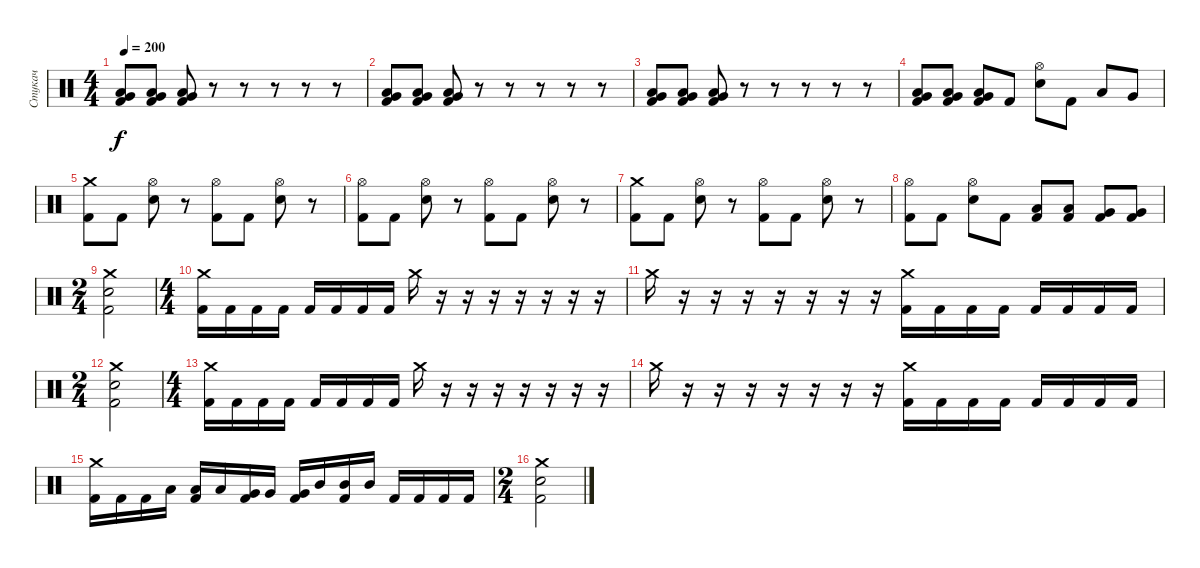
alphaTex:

\track ("Стукач" "Стукач") {instrument percussion}
\staff {score}
\articulation defaults
\ts (4 4)
\tempo 200
\clef neutral
\ks c
("Very Low Tom (hit)" "Low Tom (hit)" "Kick (hit) 2").8{dy f} ("Very Low Tom (hit)" "Low Tom (hit)" "Kick (hit) 2").8 ("Very Low Tom (hit)" "Low Tom (hit)" "Kick (hit) 2").8 r.8 r.8 r.8 r.8 r.8 |
("Very Low Tom (hit)" "Low Tom (hit)" "Kick (hit) 2").8 ("Very Low Tom (hit)" "Low Tom (hit)" "Kick (hit) 2").8 ("Very Low Tom (hit)" "Low Tom (hit)" "Kick (hit) 2").8 r.8 r.8 r.8 r.8 r.8 |
("Very Low Tom (hit)" "Low Tom (hit)" "Kick (hit) 2").8 ("Very Low Tom (hit)" "Low Tom (hit)" "Kick (hit) 2").8 ("Very Low Tom (hit)" "Low Tom (hit)" "Kick (hit) 2").8 r.8 r.8 r.8 r.8 r.8 |
("Very Low Tom (hit)" "Low Tom (hit)" "Kick (hit) 2").8 ("Very Low Tom (hit)" "Low Tom (hit)" "Kick (hit) 2").8 ("Very Low Tom (hit)" "Low Tom (hit)" "Kick (hit) 2").8 "Kick (hit) 2".8 ("Hi-Hat (open)" "Electric Snare (hit)").8 "Kick (hit) 2".8 "Low Tom (hit)".8 "Very Low Tom (hit)".8 |
("Crash medium (hit)" "Kick (hit) 2").8 "Kick (hit) 2".8 ("Hi-Hat (open)" "Electric Snare (hit)").8 r.8 ("Hi-Hat (open)" "Kick (hit) 2").8 "Kick (hit) 2".8 ("Hi-Hat (open)" "Electric Snare (hit)").8 r.8 |
("Hi-Hat (open)" "Kick (hit) 2").8 "Kick (hit) 2".8 ("Hi-Hat (open)" "Electric Snare (hit)").8 r.8 ("Hi-Hat (open)" "Kick (hit) 2").8 "Kick (hit) 2".8 ("Hi-Hat (open)" "Electric Snare (hit)").8 r.8 |
("Crash medium (hit)" "Kick (hit) 2").8 "Kick (hit) 2".8 ("Hi-Hat (open)" "Electric Snare (hit)").8 r.8 ("Hi-Hat (open)" "Kick (hit) 2").8 "Kick (hit) 2".8 ("Hi-Hat (open)" "Electric Snare (hit)").8 r.8 |
("Hi-Hat (open)" "Kick (hit) 2").8 "Kick (hit) 2".8 ("Hi-Hat (open)" "Electric Snare (hit)").8 "Kick (hit) 2".8 ("Low Tom (hit)" "Kick (hit) 2").8 ("Low Tom (hit)" "Kick (hit) 2").8 ("Very Low Tom (hit)" "Kick (hit) 2").8 ("Very Low Tom (hit)" "Kick (hit) 2").8 |
\ts (2 4)
("Crash medium (hit)" "Electric Snare (hit)" "Kick (hit) 2").2 |
\ts (4 4)
("Crash medium (hit)" "Kick (hit) 2").16 "Kick (hit) 2".16 "Kick (hit) 2".16 "Kick (hit) 2".16 "Kick (hit) 2".16 "Kick (hit) 2".16 "Kick (hit) 2".16 "Kick (hit) 2".16 "Crash medium (hit)".16 r.16 r.16 r.16 r.16 r.16 r.16 r.16 |
"Crash medium (hit)".16 r.16 r.16 r.16 r.16 r.16 r.16 r.16 ("Crash medium (hit)" "Kick (hit) 2").16 "Kick (hit) 2".16 "Kick (hit) 2".16 "Kick (hit) 2".16 "Kick (hit) 2".16 "Kick (hit) 2".16 "Kick (hit) 2".16 "Kick (hit) 2".16 |
\ts (2 4)
("Crash medium (hit)" "Electric Snare (hit)" "Kick (hit) 2").2 |
\ts (4 4)
("Crash medium (hit)" "Kick (hit) 2").16 "Kick (hit) 2".16 "Kick (hit) 2".16 "Kick (hit) 2".16 "Kick (hit) 2".16 "Kick (hit) 2".16 "Kick (hit) 2".16 "Kick (hit) 2".16 "Crash medium (hit)".16 r.16 r.16 r.16 r.16 r.16 r.16 r.16 |
"Crash medium (hit)".16 r.16 r.16 r.16 r.16 r.16 r.16 r.16 ("Crash medium (hit)" "Kick (hit) 2").16 "Kick (hit) 2".16 "Kick (hit) 2".16 "Kick (hit) 2".16 "Kick (hit) 2".16 "Kick (hit) 2".16 "Kick (hit) 2".16 "Kick (hit) 2".16 |
("Crash medium (hit)" "Kick (hit) 2").16 "Kick (hit) 2".16 "Kick (hit) 2".16 "Low Tom (hit)".16 ("Low Tom (hit)" "Kick (hit) 2").16 "Low Tom (hit)".16 ("Very Low Tom (hit)" "Kick (hit) 2").16 "Very Low Tom (hit)".16 ("Very Low Tom (hit)" "Kick (hit) 2").16 "Mid Tom (hit)".16 ("Mid Tom (hit)" "Kick (hit) 2").16 "Mid Tom (hit)".16 "Kick (hit) 2".16 "Kick (hit) 2".16 "Kick (hit) 2".16 "Kick (hit) 2".16 |
\ts (2 4)
("Crash medium (hit)" "Electric Snare (hit)" "Kick (hit) 2").2
